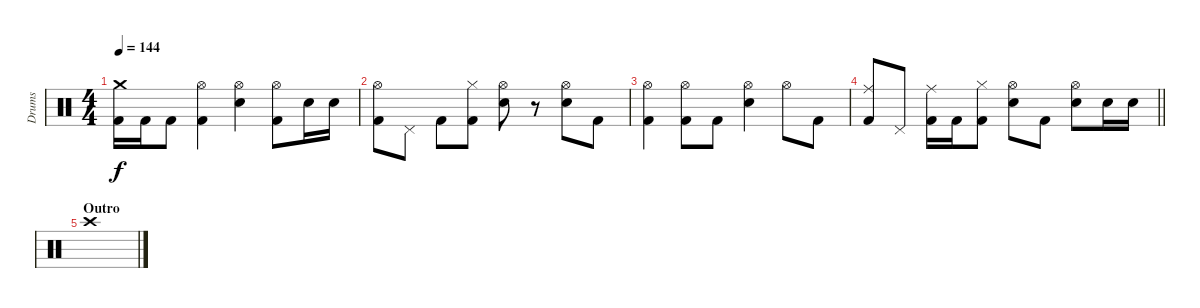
\track ("Drums" "Drums") {instrument percussion}
\staff {score}
\articulation defaults
\ts (4 4)
\tempo 144
\clef neutral
\ks c
("Crash medium (hit)" "Kick (hit) 2").16{dy f} "Kick (hit) 2".16 "Kick (hit) 2".8 ("Hi-Hat (open)" "Kick (hit) 2").4 ("Hi-Hat (open)" "Electric Snare (hit)").4 ("Hi-Hat (open)" "Kick (hit) 2").8 "Electric Snare (hit)".16 "Electric Snare (hit)".16 |
("Hi-Hat (open)" "Kick (hit) 2").8 "Pedal Hi-Hat (hit)".8 "Kick (hit) 2".8 ("Hi-Hat (closed)" "Kick (hit) 2").8 ("Hi-Hat (open)" "Electric Snare (hit)").8 r.8 ("Hi-Hat (open)" "Electric Snare (hit)").8 "Kick (hit) 2".8 |
("Hi-Hat (open)" "Kick (hit) 2").4 ("Hi-Hat (open)" "Kick (hit) 2").8 "Kick (hit) 2".8 ("Hi-Hat (open)" "Electric Snare (hit)").4 "Hi-Hat (open)".8 "Kick (hit) 2".8 |
\barLineRight lightlight
("Ride (middle)" "Kick (hit) 2").8 "Pedal Hi-Hat (hit)".8 ("Ride (middle)" "Kick (hit) 2").16 "Kick (hit) 2".16 ("Hi-Hat (closed)" "Kick (hit) 2").8 ("Hi-Hat (open)" "Electric Snare (hit)").8 "Kick (hit) 2".8 ("Hi-Hat (open)" "Electric Snare (hit)").8 "Electric Snare (hit)".16 "Electric Snare (hit)".16 |
\section ("" "Outro")
"Crash high (hit)".1
